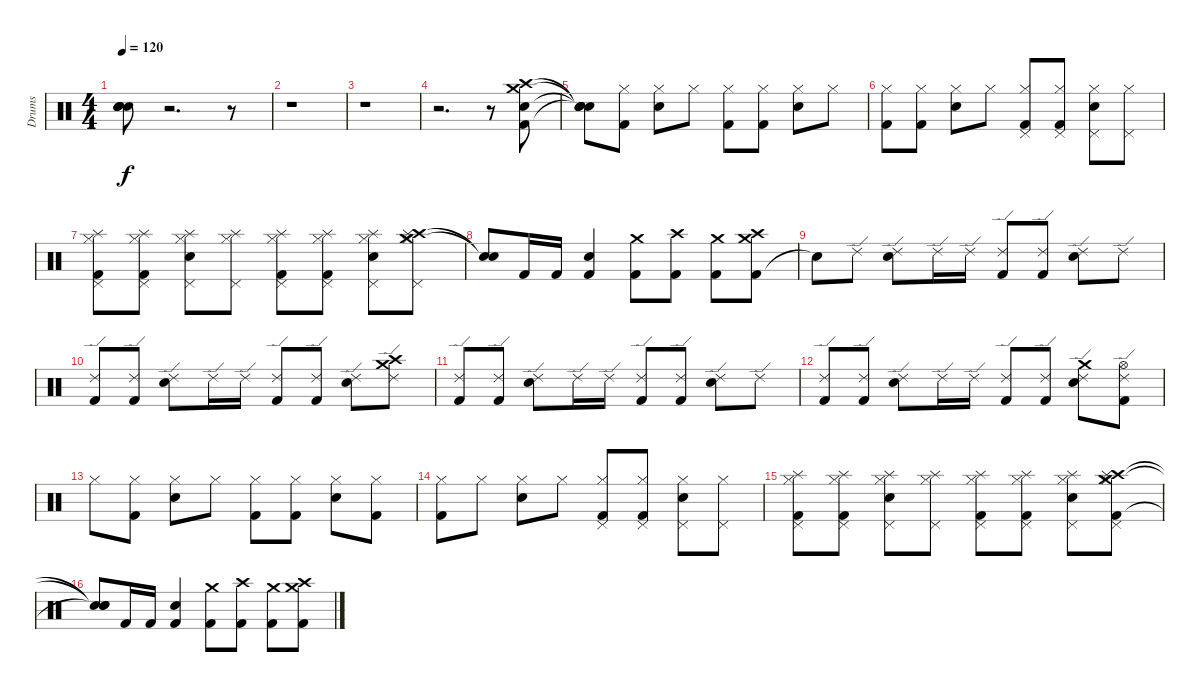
\track ("Drums" "Drums") {instrument percussion}
\staff {score}
\articulation defaults
\ts (4 4)
\tempo 120
\clef neutral
\ks c
("Snare (hit)"{t} "Snare (hit)"{t} "Snare (hit)"{t} "Snare (hit)"{t}).8{dy f} r.2{d} r.8 |
r.1 |
r.1 |
r.2{d} r.8 ("Snare (hit) 2" "Kick (hit) 2" "Crash medium (hit)" "Crash high (hit)").8 |
("Snare (hit)"{t} "Snare (hit)"{t} "Snare (hit)"{t} "Snare (hit)"{t}).8 ("Hi-Hat (closed)" "Kick (hit) 2").8 ("Hi-Hat (closed)" "Snare (hit) 2").8 "Hi-Hat (closed)".8 ("Hi-Hat (closed)" "Kick (hit) 2").8 ("Hi-Hat (closed)" "Kick (hit) 2").8 ("Hi-Hat (closed)" "Snare (hit) 2").8 "Hi-Hat (closed)".8 |
("Hi-Hat (closed)" "Kick (hit) 2").8 ("Hi-Hat (closed)" "Kick (hit) 2").8 ("Hi-Hat (closed)" "Snare (hit) 2").8 "Hi-Hat (closed)".8 ("Pedal Hi-Hat (hit)" "Hi-Hat (closed)" "Kick (hit) 2").8 ("Pedal Hi-Hat (hit)" "Hi-Hat (closed)" "Kick (hit) 2").8 ("Pedal Hi-Hat (hit)" "Hi-Hat (closed)" "Snare (hit) 2").8 ("Pedal Hi-Hat (hit)" "Hi-Hat (closed)").8 |
("Splash (hit)" "Pedal Hi-Hat (hit)" "Hi-Hat (closed)" "Kick (hit) 2").8 ("Splash (hit)" "Pedal Hi-Hat (hit)" "Hi-Hat (closed)" "Kick (hit) 2").8 ("Splash (hit)" "Pedal Hi-Hat (hit)" "Hi-Hat (closed)" "Snare (hit) 2").8 ("Splash (hit)" "Pedal Hi-Hat (hit)" "Hi-Hat (closed)").8 ("Splash (hit)" "Pedal Hi-Hat (hit)" "Hi-Hat (closed)" "Kick (hit) 2").8 ("Splash (hit)" "Pedal Hi-Hat (hit)" "Hi-Hat (closed)" "Kick (hit) 2").8 ("Splash (hit)" "Pedal Hi-Hat (hit)" "Hi-Hat (closed)" "Snare (hit) 2").8 ("Crash high (hit)" "Crash medium (hit)" "Splash (hit)" "Pedal Hi-Hat (hit)" "Hi-Hat (closed)").8 |
("Snare (hit)"{t} "Snare (hit)"{t}).8 "Kick (hit) 2".16 "Kick (hit) 2".16 ("Snare (hit) 2" "Kick (hit) 2").4 ("Crash medium (hit)" "Kick (hit) 2").8 ("Kick (hit) 2" "Crash high (hit)").8 ("Kick (hit) 2" "Crash medium (hit)").8 ("Kick (hit) 2" "Crash high (hit)" "Crash medium (hit)").8 |
"Snare (hit)"{t}.8 "Ride (edge) 2".8 ("Ride (edge) 2" "Snare (hit) 2").8 "Ride (edge) 2".16 "Ride (edge) 2".16 ("Ride (edge) 2" "Kick (hit) 2").8 ("Ride (edge) 2" "Kick (hit) 2").8 ("Ride (edge) 2" "Snare (hit) 2").8 "Ride (edge) 2".8 |
("Ride (edge) 2" "Kick (hit) 2").8 ("Ride (edge) 2" "Kick (hit) 2").8 ("Ride (edge) 2" "Snare (hit) 2").8 "Ride (edge) 2".16 "Ride (edge) 2".16 ("Ride (edge) 2" "Kick (hit) 2").8 ("Ride (edge) 2" "Kick (hit) 2").8 ("Ride (edge) 2" "Snare (hit) 2").8 ("Crash high (hit)" "Crash medium (hit)" "Ride (edge) 2").8 |
("Ride (edge) 2" "Kick (hit) 2").8 ("Ride (edge) 2" "Kick (hit) 2").8 ("Ride (edge) 2" "Snare (hit) 2").8 "Ride (edge) 2".16 "Ride (edge) 2".16 ("Ride (edge) 2" "Kick (hit) 2").8 ("Ride (edge) 2" "Kick (hit) 2").8 ("Ride (edge) 2" "Snare (hit) 2").8 "Ride (edge) 2".8 |
("Ride (edge) 2" "Kick (hit) 2").8 ("Ride (edge) 2" "Kick (hit) 2").8 ("Ride (edge) 2" "Snare (hit) 2").8 "Ride (edge) 2".16 "Ride (edge) 2".16 ("Ride (edge) 2" "Kick (hit) 2").8 ("Ride (edge) 2" "Kick (hit) 2").8 ("Crash medium (hit)" "Ride (edge) 2" "Snare (hit) 2").8 ("Hi-Hat (open)" "Ride (edge) 2" "Kick (hit) 2").8 |
"Hi-Hat (closed)".8 ("Hi-Hat (closed)" "Kick (hit) 2").8 ("Hi-Hat (closed)" "Snare (hit) 2").8 "Hi-Hat (closed)".8 ("Hi-Hat (closed)" "Kick (hit) 2").8 ("Hi-Hat (closed)" "Kick (hit) 2").8 ("Hi-Hat (closed)" "Snare (hit) 2").8 ("Hi-Hat (closed)" "Kick (hit) 2").8 |
("Hi-Hat (closed)" "Kick (hit) 2").8 "Hi-Hat (closed)".8 ("Hi-Hat (closed)" "Snare (hit) 2").8 "Hi-Hat (closed)".8 ("Pedal Hi-Hat (hit)" "Hi-Hat (closed)" "Kick (hit) 2").8 ("Pedal Hi-Hat (hit)" "Hi-Hat (closed)" "Kick (hit) 2").8 ("Pedal Hi-Hat (hit)" "Hi-Hat (closed)" "Snare (hit) 2").8 ("Pedal Hi-Hat (hit)" "Hi-Hat (closed)").8 |
("Splash (hit)" "Pedal Hi-Hat (hit)" "Hi-Hat (closed)" "Kick (hit) 2").8 ("Hi-Hat (closed)" "Splash (hit)" "Pedal Hi-Hat (hit)" "Kick (hit) 2").8 ("Splash (hit)" "Pedal Hi-Hat (hit)" "Hi-Hat (closed)" "Snare (hit) 2").8 ("Splash (hit)" "Pedal Hi-Hat (hit)" "Hi-Hat (closed)").8 ("Splash (hit)" "Pedal Hi-Hat (hit)" "Hi-Hat (closed)" "Kick (hit) 2").8 ("Splash (hit)" "Pedal Hi-Hat (hit)" "Hi-Hat (closed)" "Kick (hit) 2").8 ("Splash (hit)" "Pedal Hi-Hat (hit)" "Hi-Hat (closed)" "Snare (hit) 2").8 ("Kick (hit) 2" "Crash high (hit)" "Crash medium (hit)" "Splash (hit)" "Pedal Hi-Hat (hit)" "Hi-Hat (closed)").8 |
("Snare (hit)"{t} "Snare (hit)"{t} "Snare (hit)"{t}).8 "Kick (hit) 2".16 "Kick (hit) 2".16 ("Snare (hit) 2" "Kick (hit) 2").4 ("Crash medium (hit)" "Kick (hit) 2").8 ("Crash high (hit)" "Kick (hit) 2").8 ("Crash medium (hit)" "Kick (hit) 2").8 ("Crash high (hit)" "Kick (hit) 2" "Crash medium (hit)").8
